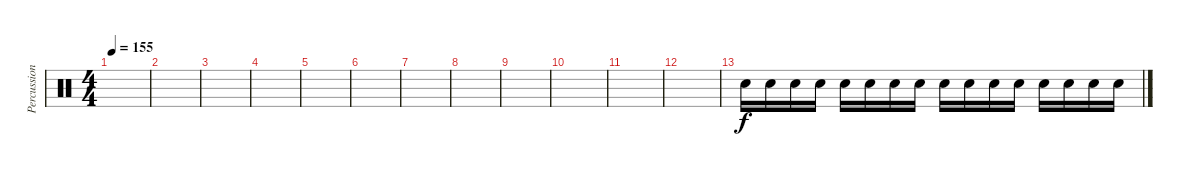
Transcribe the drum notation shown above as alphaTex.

\track ("Percussion" "Percussion") {instrument percussion}
\staff {score}
\articulation defaults
\ts (4 4)
\tempo 155
\clef neutral
\ks c
|
|
|
|
|
|
|
|
|
|
|
|
"Snare (hit) 2".16 "Snare (hit) 2".16 "Snare (hit) 2".16 "Snare (hit) 2".16 "Snare (hit) 2".16 "Snare (hit) 2".16 "Snare (hit) 2".16 "Snare (hit) 2".16 "Snare (hit) 2".16 "Snare (hit) 2".16 "Snare (hit) 2".16 "Snare (hit) 2".16 "Snare (hit) 2".16 "Snare (hit) 2".16 "Snare (hit) 2".16 "Snare (hit) 2".16
